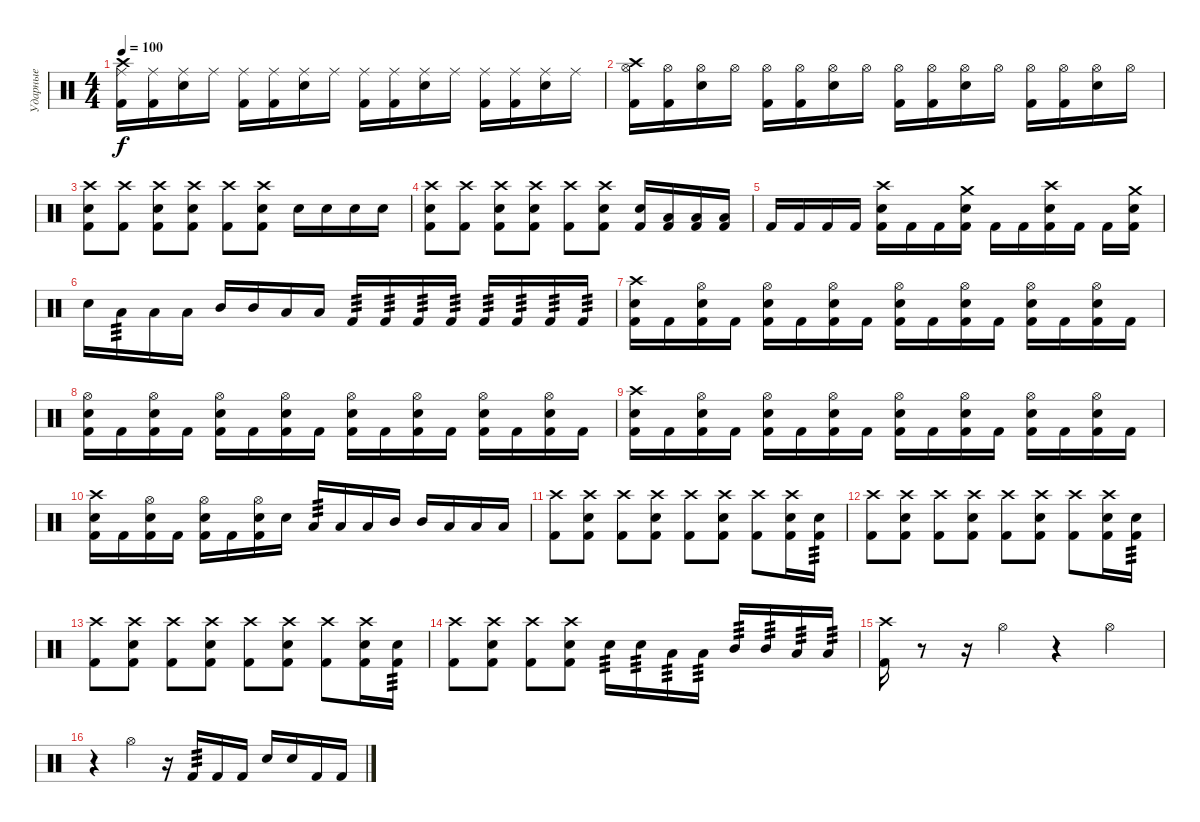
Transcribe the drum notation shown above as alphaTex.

\track ("Ударные" "Ударные") {instrument percussion}
\staff {score}
\articulation defaults
\ts (4 4)
\tempo 100
\clef neutral
\ks c
("Ride (middle)" "Crash high (hit)" "Kick (hit) 2").16{dy f} ("Ride (middle)" "Kick (hit) 2").16 ("Ride (middle)" "Snare (hit) 2").16 "Ride (middle)".16 ("Ride (middle)" "Kick (hit) 2").16 ("Ride (middle)" "Kick (hit) 2").16 ("Ride (middle)" "Snare (hit) 2").16 "Ride (middle)".16 ("Ride (middle)" "Kick (hit) 2").16 ("Ride (middle)" "Kick (hit) 2").16 ("Ride (middle)" "Snare (hit) 2").16 "Ride (middle)".16 ("Ride (middle)" "Kick (hit) 2").16 ("Ride (middle)" "Kick (hit) 2").16 ("Ride (middle)" "Snare (hit) 2").16 "Ride (middle)".16 |
("Hi-Hat (open)" "Crash high (hit)" "Kick (hit) 2").16 ("Hi-Hat (open)" "Kick (hit) 2").16 ("Hi-Hat (open)" "Snare (hit) 2").16 "Hi-Hat (open)".16 ("Hi-Hat (open)" "Kick (hit) 2").16 ("Hi-Hat (open)" "Kick (hit) 2").16 ("Hi-Hat (open)" "Snare (hit) 2").16 "Hi-Hat (open)".16 ("Hi-Hat (open)" "Kick (hit) 2").16 ("Hi-Hat (open)" "Kick (hit) 2").16 ("Hi-Hat (open)" "Snare (hit) 2").16 "Hi-Hat (open)".16 ("Hi-Hat (open)" "Kick (hit) 2").16 ("Hi-Hat (open)" "Kick (hit) 2").16 ("Hi-Hat (open)" "Snare (hit) 2").16 "Hi-Hat (open)".16 |
("Crash high (hit)" "Snare (hit) 2" "Kick (hit) 2").8 ("Crash high (hit)" "Kick (hit) 2").8 ("Crash high (hit)" "Snare (hit) 2" "Kick (hit) 2").8 ("Crash high (hit)" "Snare (hit) 2" "Kick (hit) 2").8 ("Crash high (hit)" "Kick (hit) 2").8 ("Crash high (hit)" "Snare (hit) 2" "Kick (hit) 2").8 "Snare (hit) 2".16 "Snare (hit) 2".16 "Snare (hit) 2".16 "Snare (hit) 2".16 |
("Crash high (hit)" "Snare (hit) 2" "Kick (hit) 2").8 ("Crash high (hit)" "Kick (hit) 2").8 ("Crash high (hit)" "Snare (hit) 2" "Kick (hit) 2").8 ("Crash high (hit)" "Snare (hit) 2" "Kick (hit) 2").8 ("Crash high (hit)" "Kick (hit) 2").8 ("Crash high (hit)" "Snare (hit) 2" "Kick (hit) 2").8 ("Snare (hit) 2" "Kick (hit) 2").16 ("Low Tom (hit)" "Kick (hit) 2").16 ("Low Tom (hit)" "Kick (hit) 2").16 ("Low Floor Tom (hit)" "Kick (hit) 2").16 |
"Kick (hit) 2".16 "Kick (hit) 2".16 "Kick (hit) 2".16 "Kick (hit) 2".16 ("Crash high (hit)" "Snare (hit) 2" "Kick (hit) 2").16 "Kick (hit) 2".16 "Kick (hit) 2".16 ("Crash medium (hit)" "Snare (hit) 2" "Kick (hit) 2").16 "Kick (hit) 2".16 "Kick (hit) 2".16 ("Crash high (hit)" "Snare (hit) 2" "Kick (hit) 2").16 "Kick (hit) 2".16 "Kick (hit) 2".16 ("Crash medium (hit)" "Snare (hit) 2" "Kick (hit) 2").16 |
"Snare (hit) 2".16 "Low Tom (hit)".16{tp 3} "Low Tom (hit)".16 "Low Tom (hit)".16 "Mid Tom (hit)".16 "Mid Tom (hit)".16 "Low Floor Tom (hit)".16 "Low Floor Tom (hit)".16 "Kick (hit) 2".16{tp 3} "Kick (hit) 2".16{tp 3} "Kick (hit) 2".16{tp 3} "Kick (hit) 2".16{tp 3} "Kick (hit) 2".16{tp 3} "Kick (hit) 2".16{tp 3} "Kick (hit) 2".16{tp 3} "Kick (hit) 2".16{tp 3} |
("Crash high (hit)" "Snare (hit) 2" "Kick (hit) 2").16 "Kick (hit) 2".16 ("Hi-Hat (open)" "Snare (hit) 2" "Kick (hit) 2").16 "Kick (hit) 2".16 ("Hi-Hat (open)" "Snare (hit) 2" "Kick (hit) 2").16 "Kick (hit) 2".16 ("Hi-Hat (open)" "Snare (hit) 2" "Kick (hit) 2").16 "Kick (hit) 2".16 ("Hi-Hat (open)" "Snare (hit) 2" "Kick (hit) 2").16 "Kick (hit) 2".16 ("Hi-Hat (open)" "Snare (hit) 2" "Kick (hit) 2").16 "Kick (hit) 2".16 ("Hi-Hat (open)" "Snare (hit) 2" "Kick (hit) 2").16 "Kick (hit) 2".16 ("Hi-Hat (open)" "Snare (hit) 2" "Kick (hit) 2").16 "Kick (hit) 2".16 |
("Hi-Hat (open)" "Snare (hit) 2" "Kick (hit) 2").16 "Kick (hit) 2".16 ("Hi-Hat (open)" "Snare (hit) 2" "Kick (hit) 2").16 "Kick (hit) 2".16 ("Hi-Hat (open)" "Snare (hit) 2" "Kick (hit) 2").16 "Kick (hit) 2".16 ("Hi-Hat (open)" "Snare (hit) 2" "Kick (hit) 2").16 "Kick (hit) 2".16 ("Hi-Hat (open)" "Snare (hit) 2" "Kick (hit) 2").16 "Kick (hit) 2".16 ("Hi-Hat (open)" "Snare (hit) 2" "Kick (hit) 2").16 "Kick (hit) 2".16 ("Hi-Hat (open)" "Snare (hit) 2" "Kick (hit) 2").16 "Kick (hit) 2".16 ("Hi-Hat (open)" "Snare (hit) 2" "Kick (hit) 2").16 "Kick (hit) 2".16 |
("Crash high (hit)" "Snare (hit) 2" "Kick (hit) 2").16 "Kick (hit) 2".16 ("Hi-Hat (open)" "Snare (hit) 2" "Kick (hit) 2").16 "Kick (hit) 2".16 ("Hi-Hat (open)" "Snare (hit) 2" "Kick (hit) 2").16 "Kick (hit) 2".16 ("Hi-Hat (open)" "Snare (hit) 2" "Kick (hit) 2").16 "Kick (hit) 2".16 ("Hi-Hat (open)" "Snare (hit) 2" "Kick (hit) 2").16 "Kick (hit) 2".16 ("Hi-Hat (open)" "Snare (hit) 2" "Kick (hit) 2").16 "Kick (hit) 2".16 ("Hi-Hat (open)" "Snare (hit) 2" "Kick (hit) 2").16 "Kick (hit) 2".16 ("Hi-Hat (open)" "Snare (hit) 2" "Kick (hit) 2").16 "Kick (hit) 2".16 |
("Crash high (hit)" "Snare (hit) 2" "Kick (hit) 2").16 "Kick (hit) 2".16 ("Hi-Hat (open)" "Snare (hit) 2" "Kick (hit) 2").16 "Kick (hit) 2".16 ("Hi-Hat (open)" "Snare (hit) 2" "Kick (hit) 2").16 "Kick (hit) 2".16 ("Hi-Hat (open)" "Snare (hit) 2" "Kick (hit) 2").16 "Snare (hit) 2".16 "Low Tom (hit)".16{tp 3} "Low Tom (hit)".16 "Low Tom (hit)".16 "Mid Tom (hit)".16 "Mid Tom (hit)".16 "Low Floor Tom (hit)".16 "Low Floor Tom (hit)".16 "Low Floor Tom (hit)".16 |
("Crash high (hit)" "Kick (hit) 2").8 ("Crash high (hit)" "Snare (hit) 2" "Kick (hit) 2").8 ("Crash high (hit)" "Kick (hit) 2").8 ("Crash high (hit)" "Snare (hit) 2" "Kick (hit) 2").8 ("Crash high (hit)" "Kick (hit) 2").8 ("Crash high (hit)" "Snare (hit) 2" "Kick (hit) 2").8 ("Crash high (hit)" "Kick (hit) 2").8 ("Crash high (hit)" "Snare (hit) 2" "Kick (hit) 2").16 ("Snare (hit) 2" "Kick (hit) 2").16{tp 3} |
("Crash high (hit)" "Kick (hit) 2").8 ("Crash high (hit)" "Snare (hit) 2" "Kick (hit) 2").8 ("Crash high (hit)" "Kick (hit) 2").8 ("Crash high (hit)" "Snare (hit) 2" "Kick (hit) 2").8 ("Crash high (hit)" "Kick (hit) 2").8 ("Crash high (hit)" "Snare (hit) 2" "Kick (hit) 2").8 ("Crash high (hit)" "Kick (hit) 2").8 ("Crash high (hit)" "Snare (hit) 2" "Kick (hit) 2").16 ("Snare (hit) 2" "Kick (hit) 2").16{tp 3} |
("Crash high (hit)" "Kick (hit) 2").8 ("Crash high (hit)" "Snare (hit) 2" "Kick (hit) 2").8 ("Crash high (hit)" "Kick (hit) 2").8 ("Crash high (hit)" "Snare (hit) 2" "Kick (hit) 2").8 ("Crash high (hit)" "Kick (hit) 2").8 ("Crash high (hit)" "Snare (hit) 2" "Kick (hit) 2").8 ("Crash high (hit)" "Kick (hit) 2").8 ("Crash high (hit)" "Snare (hit) 2" "Kick (hit) 2").16 ("Snare (hit) 2" "Kick (hit) 2").16{tp 3} |
("Crash high (hit)" "Kick (hit) 2").8 ("Crash high (hit)" "Snare (hit) 2" "Kick (hit) 2").8 ("Crash high (hit)" "Kick (hit) 2").8 ("Crash high (hit)" "Snare (hit) 2" "Kick (hit) 2").8 "Snare (hit) 2".16{tp 3} "Snare (hit) 2".16{tp 3} "Low Tom (hit)".16{tp 3} "Low Tom (hit)".16{tp 3} "Mid Tom (hit)".16{tp 3} "Mid Tom (hit)".16{tp 3} "Low Floor Tom (hit)".16{tp 3} "Low Floor Tom (hit)".16{tp 3} |
("Crash high (hit)" "Kick (hit) 2").16 r.8 r.16 "Hi-Hat (open)".4 r.4 "Hi-Hat (open)".4 |
r.4 "Hi-Hat (open)".4 r.16 "Kick (hit) 2".16{tp 3} "Kick (hit) 2".16 "Kick (hit) 2".16 "Snare (hit) 2".16 "Snare (hit) 2".16 "Kick (hit) 2".16 "Kick (hit) 2".16
